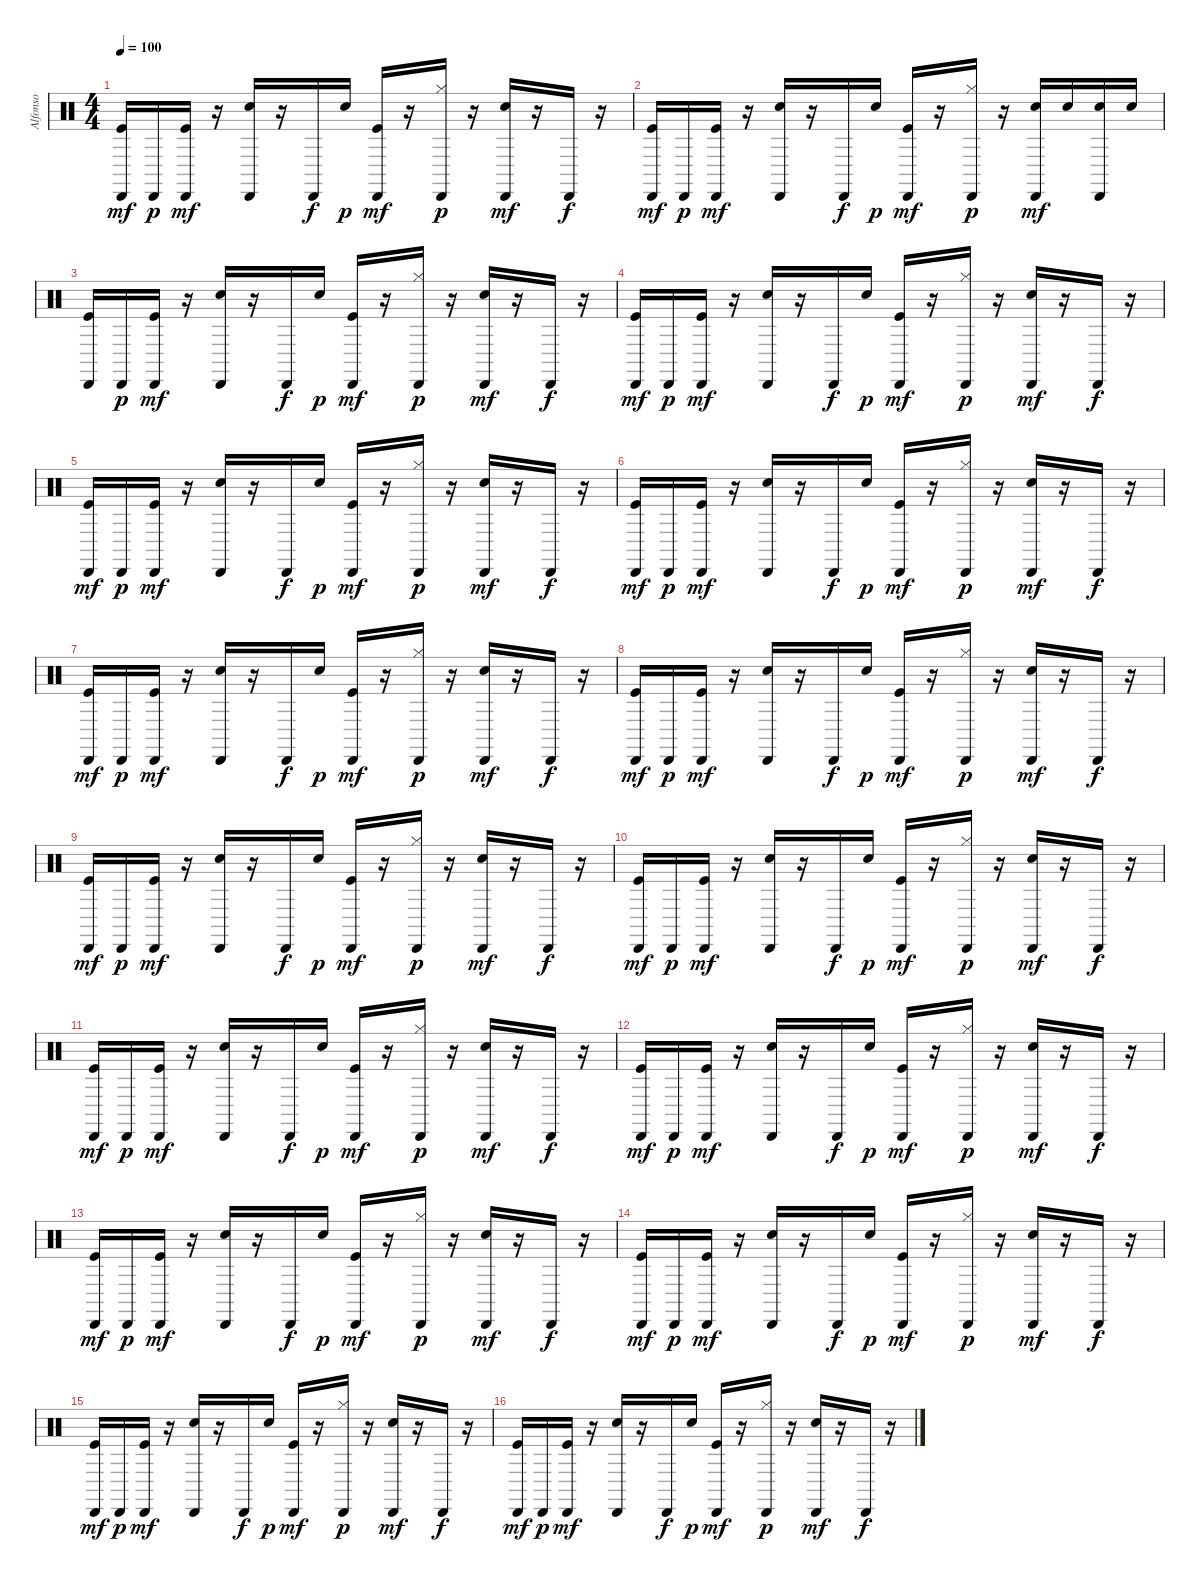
\track ("Alfonso" "Alfonso") {instrument percussion}
\staff {score}
\articulation defaults
\ts (4 4)
\tempo 100
\clef neutral
\ks c
("Kick (hit)" "Cabasa (hit)").16{dy mf} "Cabasa (hit)".16{dy p} ("Kick (hit)" "Cabasa (hit)").16{dy mf} r.16 ("Electric Snare (hit)" "Cabasa (hit)").16 r.16 "Cabasa (hit)".16{dy f} "Electric Snare (hit)".16{dy p} ("Kick (hit)" "Cabasa (hit)").16{dy mf} r.16 ("Hi-Hat (closed)" "Cabasa (hit)").16{dy p} r.16 ("Electric Snare (hit)" "Cabasa (hit)").16{dy mf} r.16 "Cabasa (hit)".16{dy f} r.16 |
("Kick (hit)" "Cabasa (hit)").16{dy mf} "Cabasa (hit)".16{dy p} ("Kick (hit)" "Cabasa (hit)").16{dy mf} r.16 ("Electric Snare (hit)" "Cabasa (hit)").16 r.16 "Cabasa (hit)".16{dy f} "Electric Snare (hit)".16{dy p} ("Kick (hit)" "Cabasa (hit)").16{dy mf} r.16 ("Hi-Hat (closed)" "Cabasa (hit)").16{dy p} r.16 ("Electric Snare (hit)" "Cabasa (hit)").16{dy mf} "Snare (hit) 2".16 ("Snare (hit) 2" "Cabasa (hit)").16 "Snare (hit) 2".16 |
("Kick (hit)" "Cabasa (hit)").16 "Cabasa (hit)".16{dy p} ("Kick (hit)" "Cabasa (hit)").16{dy mf} r.16 ("Electric Snare (hit)" "Cabasa (hit)").16 r.16 "Cabasa (hit)".16{dy f} "Electric Snare (hit)".16{dy p} ("Kick (hit)" "Cabasa (hit)").16{dy mf} r.16 ("Hi-Hat (closed)" "Cabasa (hit)").16{dy p} r.16 ("Electric Snare (hit)" "Cabasa (hit)").16{dy mf} r.16 "Cabasa (hit)".16{dy f} r.16 |
("Kick (hit)" "Cabasa (hit)").16{dy mf} "Cabasa (hit)".16{dy p} ("Kick (hit)" "Cabasa (hit)").16{dy mf} r.16 ("Electric Snare (hit)" "Cabasa (hit)").16 r.16 "Cabasa (hit)".16{dy f} "Electric Snare (hit)".16{dy p} ("Kick (hit)" "Cabasa (hit)").16{dy mf} r.16 ("Hi-Hat (closed)" "Cabasa (hit)").16{dy p} r.16 ("Electric Snare (hit)" "Cabasa (hit)").16{dy mf} r.16 "Cabasa (hit)".16{dy f} r.16 |
("Kick (hit)" "Cabasa (hit)").16{dy mf} "Cabasa (hit)".16{dy p} ("Kick (hit)" "Cabasa (hit)").16{dy mf} r.16 ("Electric Snare (hit)" "Cabasa (hit)").16 r.16 "Cabasa (hit)".16{dy f} "Electric Snare (hit)".16{dy p} ("Kick (hit)" "Cabasa (hit)").16{dy mf} r.16 ("Hi-Hat (closed)" "Cabasa (hit)").16{dy p} r.16 ("Electric Snare (hit)" "Cabasa (hit)").16{dy mf} r.16 "Cabasa (hit)".16{dy f} r.16 |
("Kick (hit)" "Cabasa (hit)").16{dy mf} "Cabasa (hit)".16{dy p} ("Kick (hit)" "Cabasa (hit)").16{dy mf} r.16 ("Electric Snare (hit)" "Cabasa (hit)").16 r.16 "Cabasa (hit)".16{dy f} "Electric Snare (hit)".16{dy p} ("Kick (hit)" "Cabasa (hit)").16{dy mf} r.16 ("Hi-Hat (closed)" "Cabasa (hit)").16{dy p} r.16 ("Electric Snare (hit)" "Cabasa (hit)").16{dy mf} r.16 "Cabasa (hit)".16{dy f} r.16 |
("Kick (hit)" "Cabasa (hit)").16{dy mf} "Cabasa (hit)".16{dy p} ("Kick (hit)" "Cabasa (hit)").16{dy mf} r.16 ("Electric Snare (hit)" "Cabasa (hit)").16 r.16 "Cabasa (hit)".16{dy f} "Electric Snare (hit)".16{dy p} ("Kick (hit)" "Cabasa (hit)").16{dy mf} r.16 ("Hi-Hat (closed)" "Cabasa (hit)").16{dy p} r.16 ("Electric Snare (hit)" "Cabasa (hit)").16{dy mf} r.16 "Cabasa (hit)".16{dy f} r.16 |
("Kick (hit)" "Cabasa (hit)").16{dy mf} "Cabasa (hit)".16{dy p} ("Kick (hit)" "Cabasa (hit)").16{dy mf} r.16 ("Electric Snare (hit)" "Cabasa (hit)").16 r.16 "Cabasa (hit)".16{dy f} "Electric Snare (hit)".16{dy p} ("Kick (hit)" "Cabasa (hit)").16{dy mf} r.16 ("Hi-Hat (closed)" "Cabasa (hit)").16{dy p} r.16 ("Electric Snare (hit)" "Cabasa (hit)").16{dy mf} r.16 "Cabasa (hit)".16{dy f} r.16 |
("Kick (hit)" "Cabasa (hit)").16{dy mf} "Cabasa (hit)".16{dy p} ("Kick (hit)" "Cabasa (hit)").16{dy mf} r.16 ("Electric Snare (hit)" "Cabasa (hit)").16 r.16 "Cabasa (hit)".16{dy f} "Electric Snare (hit)".16{dy p} ("Kick (hit)" "Cabasa (hit)").16{dy mf} r.16 ("Hi-Hat (closed)" "Cabasa (hit)").16{dy p} r.16 ("Electric Snare (hit)" "Cabasa (hit)").16{dy mf} r.16 "Cabasa (hit)".16{dy f} r.16 |
("Kick (hit)" "Cabasa (hit)").16{dy mf} "Cabasa (hit)".16{dy p} ("Kick (hit)" "Cabasa (hit)").16{dy mf} r.16 ("Electric Snare (hit)" "Cabasa (hit)").16 r.16 "Cabasa (hit)".16{dy f} "Electric Snare (hit)".16{dy p} ("Kick (hit)" "Cabasa (hit)").16{dy mf} r.16 ("Hi-Hat (closed)" "Cabasa (hit)").16{dy p} r.16 ("Electric Snare (hit)" "Cabasa (hit)").16{dy mf} r.16 "Cabasa (hit)".16{dy f} r.16 |
("Kick (hit)" "Cabasa (hit)").16{dy mf} "Cabasa (hit)".16{dy p} ("Kick (hit)" "Cabasa (hit)").16{dy mf} r.16 ("Electric Snare (hit)" "Cabasa (hit)").16 r.16 "Cabasa (hit)".16{dy f} "Electric Snare (hit)".16{dy p} ("Kick (hit)" "Cabasa (hit)").16{dy mf} r.16 ("Hi-Hat (closed)" "Cabasa (hit)").16{dy p} r.16 ("Electric Snare (hit)" "Cabasa (hit)").16{dy mf} r.16 "Cabasa (hit)".16{dy f} r.16 |
("Kick (hit)" "Cabasa (hit)").16{dy mf} "Cabasa (hit)".16{dy p} ("Kick (hit)" "Cabasa (hit)").16{dy mf} r.16 ("Electric Snare (hit)" "Cabasa (hit)").16 r.16 "Cabasa (hit)".16{dy f} "Electric Snare (hit)".16{dy p} ("Kick (hit)" "Cabasa (hit)").16{dy mf} r.16 ("Hi-Hat (closed)" "Cabasa (hit)").16{dy p} r.16 ("Electric Snare (hit)" "Cabasa (hit)").16{dy mf} r.16 "Cabasa (hit)".16{dy f} r.16 |
("Kick (hit)" "Cabasa (hit)").16{dy mf} "Cabasa (hit)".16{dy p} ("Kick (hit)" "Cabasa (hit)").16{dy mf} r.16 ("Electric Snare (hit)" "Cabasa (hit)").16 r.16 "Cabasa (hit)".16{dy f} "Electric Snare (hit)".16{dy p} ("Kick (hit)" "Cabasa (hit)").16{dy mf} r.16 ("Hi-Hat (closed)" "Cabasa (hit)").16{dy p} r.16 ("Electric Snare (hit)" "Cabasa (hit)").16{dy mf} r.16 "Cabasa (hit)".16{dy f} r.16 |
("Kick (hit)" "Cabasa (hit)").16{dy mf} "Cabasa (hit)".16{dy p} ("Kick (hit)" "Cabasa (hit)").16{dy mf} r.16 ("Electric Snare (hit)" "Cabasa (hit)").16 r.16 "Cabasa (hit)".16{dy f} "Electric Snare (hit)".16{dy p} ("Kick (hit)" "Cabasa (hit)").16{dy mf} r.16 ("Hi-Hat (closed)" "Cabasa (hit)").16{dy p} r.16 ("Electric Snare (hit)" "Cabasa (hit)").16{dy mf} r.16 "Cabasa (hit)".16{dy f} r.16 |
("Kick (hit)" "Cabasa (hit)").16{dy mf} "Cabasa (hit)".16{dy p} ("Kick (hit)" "Cabasa (hit)").16{dy mf} r.16 ("Electric Snare (hit)" "Cabasa (hit)").16 r.16 "Cabasa (hit)".16{dy f} "Electric Snare (hit)".16{dy p} ("Kick (hit)" "Cabasa (hit)").16{dy mf} r.16 ("Hi-Hat (closed)" "Cabasa (hit)").16{dy p} r.16 ("Electric Snare (hit)" "Cabasa (hit)").16{dy mf} r.16 "Cabasa (hit)".16{dy f} r.16 |
("Kick (hit)" "Cabasa (hit)").16{dy mf} "Cabasa (hit)".16{dy p} ("Kick (hit)" "Cabasa (hit)").16{dy mf} r.16 ("Electric Snare (hit)" "Cabasa (hit)").16 r.16 "Cabasa (hit)".16{dy f} "Electric Snare (hit)".16{dy p} ("Kick (hit)" "Cabasa (hit)").16{dy mf} r.16 ("Hi-Hat (closed)" "Cabasa (hit)").16{dy p} r.16 ("Electric Snare (hit)" "Cabasa (hit)").16{dy mf} r.16 "Cabasa (hit)".16{dy f} r.16
